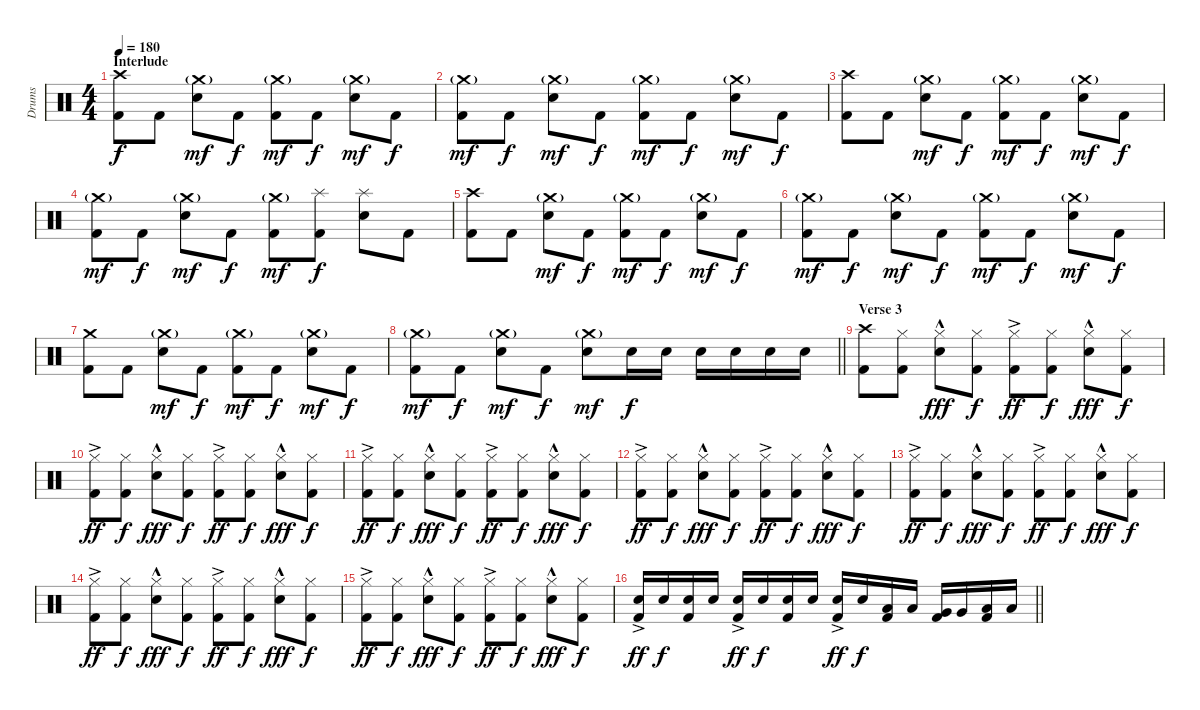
\track ("Drums" "Drums") {instrument percussion}
\staff {score}
\articulation defaults
\ts (4 4)
\section ("" "Interlude")
\tempo 180
\clef neutral
\ks c
("Crash high (hit)" "Kick (hit) 2").8{dy f} "Kick (hit) 2".8 ("Crash medium (hit)"{g} "Electric Snare (hit)").8{dy mf} "Kick (hit) 2".8{dy f} ("Crash medium (hit)"{g} "Kick (hit) 2").8{dy mf} "Kick (hit) 2".8{dy f} ("Crash medium (hit)"{g} "Electric Snare (hit)").8{dy mf} "Kick (hit) 2".8{dy f} |
("Crash medium (hit)"{g} "Kick (hit) 2").8{dy mf} "Kick (hit) 2".8{dy f} ("Crash medium (hit)"{g} "Electric Snare (hit)").8{dy mf} "Kick (hit) 2".8{dy f} ("Crash medium (hit)"{g} "Kick (hit) 2").8{dy mf} "Kick (hit) 2".8{dy f} ("Crash medium (hit)"{g} "Electric Snare (hit)").8{dy mf} "Kick (hit) 2".8{dy f} |
("Crash high (hit)" "Kick (hit) 2").8 "Kick (hit) 2".8 ("Crash medium (hit)"{g} "Electric Snare (hit)").8{dy mf} "Kick (hit) 2".8{dy f} ("Crash medium (hit)"{g} "Kick (hit) 2").8{dy mf} "Kick (hit) 2".8{dy f} ("Crash medium (hit)"{g} "Electric Snare (hit)").8{dy mf} "Kick (hit) 2".8{dy f} |
("Crash medium (hit)"{g} "Kick (hit) 2").8{dy mf} "Kick (hit) 2".8{dy f} ("Crash medium (hit)"{g} "Electric Snare (hit)").8{dy mf} "Kick (hit) 2".8{dy f} ("Crash medium (hit)"{g} "Kick (hit) 2").8{dy mf} ("Splash (hit)" "Kick (hit) 2").8{dy f} ("Splash (hit)" "Electric Snare (hit)").8 "Kick (hit) 2".8 |
("Crash high (hit)" "Kick (hit) 2").8 "Kick (hit) 2".8 ("Crash medium (hit)"{g} "Electric Snare (hit)").8{dy mf} "Kick (hit) 2".8{dy f} ("Crash medium (hit)"{g} "Kick (hit) 2").8{dy mf} "Kick (hit) 2".8{dy f} ("Crash medium (hit)"{g} "Electric Snare (hit)").8{dy mf} "Kick (hit) 2".8{dy f} |
("Crash medium (hit)"{g} "Kick (hit) 2").8{dy mf} "Kick (hit) 2".8{dy f} ("Crash medium (hit)"{g} "Electric Snare (hit)").8{dy mf} "Kick (hit) 2".8{dy f} ("Crash medium (hit)"{g} "Kick (hit) 2").8{dy mf} "Kick (hit) 2".8{dy f} ("Crash medium (hit)"{g} "Electric Snare (hit)").8{dy mf} "Kick (hit) 2".8{dy f} |
("Crash medium (hit)" "Kick (hit) 2").8 "Kick (hit) 2".8 ("Crash medium (hit)"{g} "Electric Snare (hit)").8{dy mf} "Kick (hit) 2".8{dy f} ("Crash medium (hit)"{g} "Kick (hit) 2").8{dy mf} "Kick (hit) 2".8{dy f} ("Crash medium (hit)"{g} "Electric Snare (hit)").8{dy mf} "Kick (hit) 2".8{dy f} |
\barLineRight lightlight
("Crash medium (hit)"{g} "Kick (hit) 2").8{dy mf} "Kick (hit) 2".8{dy f} ("Crash medium (hit)"{g} "Electric Snare (hit)").8{dy mf} "Kick (hit) 2".8{dy f} ("Crash medium (hit)"{g} "Electric Snare (hit)").8{dy mf} "Electric Snare (hit)".16{dy f} "Electric Snare (hit)".16 "Electric Snare (hit)".16 "Electric Snare (hit)".16 "Electric Snare (hit)".16 "Electric Snare (hit)".16 |
\section ("" "Verse 3")
("Crash high (hit)" "Kick (hit) 2").8 ("Hi-Hat (closed)" "Kick (hit) 2").8 ("Hi-Hat (closed)"{hac} "Electric Snare (hit)").8{dy fff} ("Hi-Hat (closed)" "Kick (hit) 2").8{dy f} ("Hi-Hat (closed)"{ac} "Kick (hit) 2").8{dy ff} ("Hi-Hat (closed)" "Kick (hit) 2").8{dy f} ("Hi-Hat (closed)"{hac} "Electric Snare (hit)").8{dy fff} ("Hi-Hat (closed)" "Kick (hit) 2").8{dy f} |
("Hi-Hat (closed)"{ac} "Kick (hit) 2").8{dy ff} ("Hi-Hat (closed)" "Kick (hit) 2").8{dy f} ("Hi-Hat (closed)"{hac} "Electric Snare (hit)").8{dy fff} ("Hi-Hat (closed)" "Kick (hit) 2").8{dy f} ("Hi-Hat (closed)"{ac} "Kick (hit) 2").8{dy ff} ("Hi-Hat (closed)" "Kick (hit) 2").8{dy f} ("Hi-Hat (closed)"{hac} "Electric Snare (hit)").8{dy fff} ("Hi-Hat (closed)" "Kick (hit) 2").8{dy f} |
("Hi-Hat (closed)"{ac} "Kick (hit) 2").8{dy ff} ("Hi-Hat (closed)" "Kick (hit) 2").8{dy f} ("Hi-Hat (closed)"{hac} "Electric Snare (hit)").8{dy fff} ("Hi-Hat (closed)" "Kick (hit) 2").8{dy f} ("Hi-Hat (closed)"{ac} "Kick (hit) 2").8{dy ff} ("Hi-Hat (closed)" "Kick (hit) 2").8{dy f} ("Hi-Hat (closed)"{hac} "Electric Snare (hit)").8{dy fff} ("Hi-Hat (closed)" "Kick (hit) 2").8{dy f} |
("Hi-Hat (closed)"{ac} "Kick (hit) 2").8{dy ff} ("Hi-Hat (closed)" "Kick (hit) 2").8{dy f} ("Hi-Hat (closed)"{hac} "Electric Snare (hit)").8{dy fff} ("Hi-Hat (closed)" "Kick (hit) 2").8{dy f} ("Hi-Hat (closed)"{ac} "Kick (hit) 2").8{dy ff} ("Hi-Hat (closed)" "Kick (hit) 2").8{dy f} ("Hi-Hat (closed)"{hac} "Electric Snare (hit)").8{dy fff} ("Hi-Hat (closed)" "Kick (hit) 2").8{dy f} |
("Hi-Hat (closed)"{ac} "Kick (hit) 2").8{dy ff} ("Hi-Hat (closed)" "Kick (hit) 2").8{dy f} ("Hi-Hat (closed)"{hac} "Electric Snare (hit)").8{dy fff} ("Hi-Hat (closed)" "Kick (hit) 2").8{dy f} ("Hi-Hat (closed)"{ac} "Kick (hit) 2").8{dy ff} ("Hi-Hat (closed)" "Kick (hit) 2").8{dy f} ("Hi-Hat (closed)"{hac} "Electric Snare (hit)").8{dy fff} ("Hi-Hat (closed)" "Kick (hit) 2").8{dy f} |
("Hi-Hat (closed)"{ac} "Kick (hit) 2").8{dy ff} ("Hi-Hat (closed)" "Kick (hit) 2").8{dy f} ("Hi-Hat (closed)"{hac} "Electric Snare (hit)").8{dy fff} ("Hi-Hat (closed)" "Kick (hit) 2").8{dy f} ("Hi-Hat (closed)"{ac} "Kick (hit) 2").8{dy ff} ("Hi-Hat (closed)" "Kick (hit) 2").8{dy f} ("Hi-Hat (closed)"{hac} "Electric Snare (hit)").8{dy fff} ("Hi-Hat (closed)" "Kick (hit) 2").8{dy f} |
("Hi-Hat (closed)"{ac} "Kick (hit) 2").8{dy ff} ("Hi-Hat (closed)" "Kick (hit) 2").8{dy f} ("Hi-Hat (closed)"{hac} "Electric Snare (hit)").8{dy fff} ("Hi-Hat (closed)" "Kick (hit) 2").8{dy f} ("Hi-Hat (closed)"{ac} "Kick (hit) 2").8{dy ff} ("Hi-Hat (closed)" "Kick (hit) 2").8{dy f} ("Hi-Hat (closed)"{hac} "Electric Snare (hit)").8{dy fff} ("Hi-Hat (closed)" "Kick (hit) 2").8{dy f} |
\barLineRight lightlight
("Electric Snare (hit)"{ac} "Kick (hit) 2").16{dy ff} "Electric Snare (hit)".16{dy f} ("Electric Snare (hit)" "Kick (hit) 2").16 "Electric Snare (hit)".16 ("Electric Snare (hit)"{ac} "Kick (hit) 2").16{dy ff} "Electric Snare (hit)".16{dy f} ("Electric Snare (hit)" "Kick (hit) 2").16 "Electric Snare (hit)".16 ("Electric Snare (hit)"{ac} "Kick (hit) 2").16{dy ff} "Electric Snare (hit)".16{dy f} ("Low Tom (hit)" "Kick (hit) 2").16 "Low Tom (hit)".16 ("Very Low Tom (hit)" "Kick (hit) 2").16 "Very Low Tom (hit)".16 ("Low Floor Tom (hit)" "Kick (hit) 2").16 "Low Floor Tom (hit)".16
